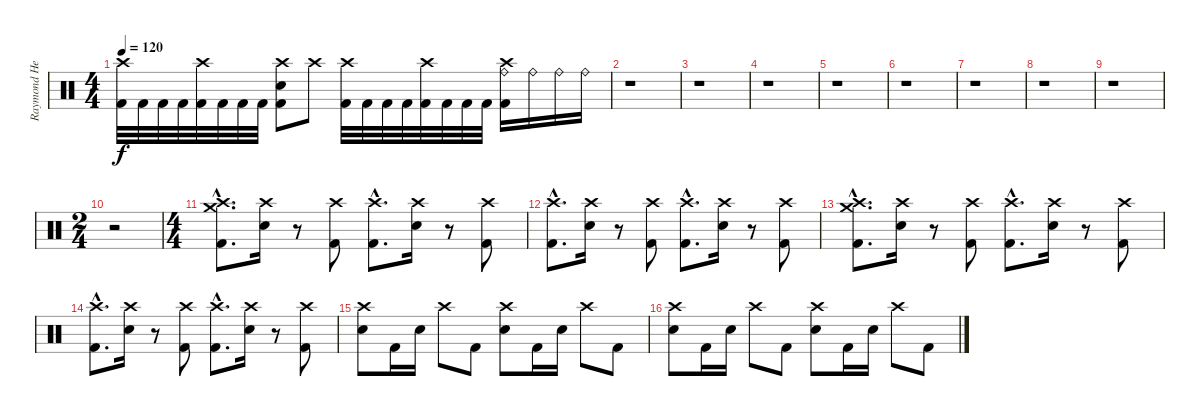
\track ("Raymond Herrera" "Raymond He") {instrument percussion}
\staff {score}
\articulation defaults
\ts (4 4)
\tempo 120
\clef neutral
\ks c
("Crash high (hit)" "Kick (hit) 2").32{dy f} "Kick (hit) 2".32 "Kick (hit) 2".32 "Kick (hit) 2".32 ("Crash high (hit)" "Kick (hit) 2").32 "Kick (hit) 2".32 "Kick (hit) 2".32 "Kick (hit) 2".32 ("Crash high (hit)" "Electric Snare (hit)" "Kick (hit) 2").8 "Crash high (hit)".8 ("Crash high (hit)" "Kick (hit) 2").32 "Kick (hit) 2".32 "Kick (hit) 2".32 "Kick (hit) 2".32 ("Crash high (hit)" "Kick (hit) 2").32 "Kick (hit) 2".32 "Kick (hit) 2".32 "Kick (hit) 2".32 ("Crash high (hit)" "Ride (bell)" "Kick (hit) 2").16 "Ride (bell)".16 "Ride (bell)".16 "Ride (bell)".16 |
r.1 |
r.1 |
r.1 |
r.1 |
r.1 |
r.1 |
r.1 |
r.1 |
\ts (2 4)
r.2 |
\ts (4 4)
("Crash medium (hit)"{hac} "Crash high (hit)"{hac} "Kick (hit) 2"{hac}).8{d} ("Crash high (hit)" "Electric Snare (hit)").16 r.8 ("Crash high (hit)" "Kick (hit) 2").8 ("Crash high (hit)"{hac} "Kick (hit) 2"{hac}).8{d} ("Crash high (hit)" "Electric Snare (hit)").16 r.8 ("Crash high (hit)" "Kick (hit) 2").8 |
("Crash high (hit)"{hac} "Kick (hit) 2"{hac}).8{d} ("Crash high (hit)" "Electric Snare (hit)").16 r.8 ("Crash high (hit)" "Kick (hit) 2").8 ("Crash high (hit)"{hac} "Kick (hit) 2"{hac}).8{d} ("Crash high (hit)" "Electric Snare (hit)").16 r.8 ("Crash high (hit)" "Kick (hit) 2").8 |
("Crash medium (hit)"{hac} "Crash high (hit)"{hac} "Kick (hit) 2"{hac}).8{d} ("Crash high (hit)" "Electric Snare (hit)").16 r.8 ("Crash high (hit)" "Kick (hit) 2").8 ("Crash high (hit)"{hac} "Kick (hit) 2"{hac}).8{d} ("Crash high (hit)" "Electric Snare (hit)").16 r.8 ("Crash high (hit)" "Kick (hit) 2").8 |
("Crash high (hit)"{hac} "Kick (hit) 2"{hac}).8{d} ("Crash high (hit)" "Electric Snare (hit)").16 r.8 ("Crash high (hit)" "Kick (hit) 2").8 ("Crash high (hit)"{hac} "Kick (hit) 2"{hac}).8{d} ("Crash high (hit)" "Electric Snare (hit)").16 r.8 ("Crash high (hit)" "Kick (hit) 2").8 |
("Crash high (hit)" "Electric Snare (hit)").8 "Kick (hit) 2".16 "Electric Snare (hit)".16 "Crash high (hit)".8 "Kick (hit) 2".8 ("Crash high (hit)" "Electric Snare (hit)").8 "Kick (hit) 2".16 "Electric Snare (hit)".16 "Crash high (hit)".8 "Kick (hit) 2".8 |
("Crash high (hit)" "Electric Snare (hit)").8 "Kick (hit) 2".16 "Electric Snare (hit)".16 "Crash high (hit)".8 "Kick (hit) 2".8 ("Crash high (hit)" "Electric Snare (hit)").8 "Kick (hit) 2".16 "Electric Snare (hit)".16 "Crash high (hit)".8 "Kick (hit) 2".8
